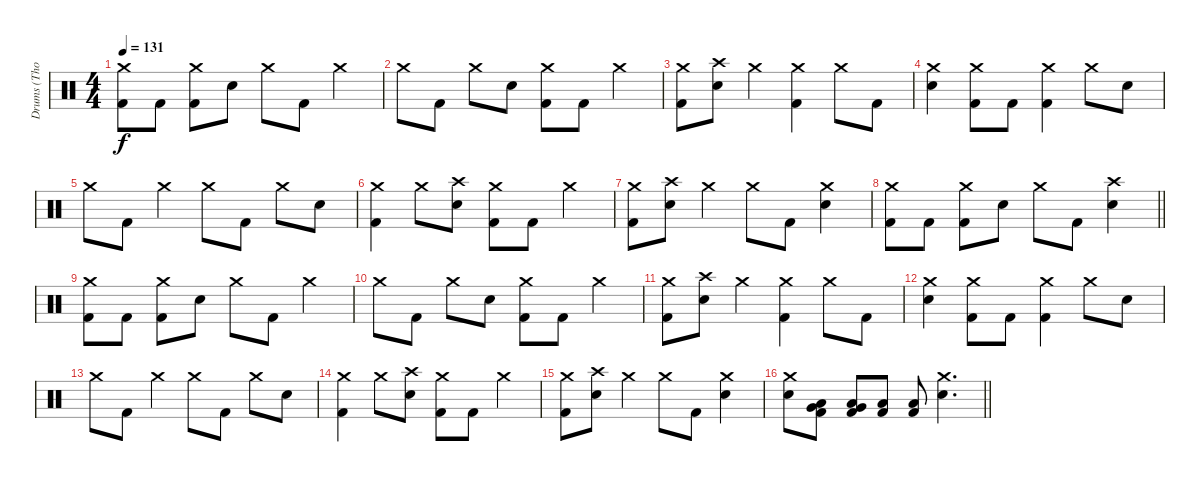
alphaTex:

\track ("Drums (Thomas Haake)" "Drums (Tho") {instrument percussion}
\staff {score}
\articulation defaults
\ts (4 4)
\tempo 131
\clef neutral
\ks c
("Crash medium (hit)" "Kick (hit) 2").8{dy f} "Kick (hit) 2".8 ("Crash medium (hit)" "Kick (hit) 2").8 "Electric Snare (hit)".8 "Crash medium (hit)".8 "Kick (hit) 2".8 "Crash medium (hit)".4 |
"Crash medium (hit)".8 "Kick (hit) 2".8 "Crash medium (hit)".8 "Electric Snare (hit)".8 ("Crash medium (hit)" "Kick (hit) 2").8 "Kick (hit) 2".8 "Crash medium (hit)".4 |
("Crash medium (hit)" "Kick (hit) 2").8 ("Crash high (hit)" "Electric Snare (hit)").8 "Crash medium (hit)".4 ("Crash medium (hit)" "Kick (hit) 2").4 "Crash medium (hit)".8 "Kick (hit) 2".8 |
("Crash medium (hit)" "Electric Snare (hit)").4 ("Crash medium (hit)" "Kick (hit) 2").8 "Kick (hit) 2".8 ("Crash medium (hit)" "Kick (hit) 2").4 "Crash medium (hit)".8 "Electric Snare (hit)".8 |
"Crash medium (hit)".8 "Kick (hit) 2".8 "Crash medium (hit)".4 "Crash medium (hit)".8 "Kick (hit) 2".8 "Crash medium (hit)".8 "Electric Snare (hit)".8 |
("Crash medium (hit)" "Kick (hit) 2").4 "Crash medium (hit)".8 ("Crash high (hit)" "Electric Snare (hit)").8 ("Crash medium (hit)" "Kick (hit) 2").8 "Kick (hit) 2".8 "Crash medium (hit)".4 |
("Crash medium (hit)" "Kick (hit) 2").8 ("Crash high (hit)" "Electric Snare (hit)").8 "Crash medium (hit)".4 "Crash medium (hit)".8 "Kick (hit) 2".8 ("Crash medium (hit)" "Electric Snare (hit)").4 |
\barLineRight lightlight
("Crash medium (hit)" "Kick (hit) 2").8 "Kick (hit) 2".8 ("Crash medium (hit)" "Kick (hit) 2").8 "Electric Snare (hit)".8 "Crash medium (hit)".8 "Kick (hit) 2".8 ("Crash high (hit)" "Electric Snare (hit)").4 |
("Crash medium (hit)" "Kick (hit) 2").8 "Kick (hit) 2".8 ("Crash medium (hit)" "Kick (hit) 2").8 "Electric Snare (hit)".8 "Crash medium (hit)".8 "Kick (hit) 2".8 "Crash medium (hit)".4 |
"Crash medium (hit)".8 "Kick (hit) 2".8 "Crash medium (hit)".8 "Electric Snare (hit)".8 ("Crash medium (hit)" "Kick (hit) 2").8 "Kick (hit) 2".8 "Crash medium (hit)".4 |
("Crash medium (hit)" "Kick (hit) 2").8 ("Crash high (hit)" "Electric Snare (hit)").8 "Crash medium (hit)".4 ("Crash medium (hit)" "Kick (hit) 2").4 "Crash medium (hit)".8 "Kick (hit) 2".8 |
("Crash medium (hit)" "Electric Snare (hit)").4 ("Crash medium (hit)" "Kick (hit) 2").8 "Kick (hit) 2".8 ("Crash medium (hit)" "Kick (hit) 2").4 "Crash medium (hit)".8 "Electric Snare (hit)".8 |
"Crash medium (hit)".8 "Kick (hit) 2".8 "Crash medium (hit)".4 "Crash medium (hit)".8 "Kick (hit) 2".8 "Crash medium (hit)".8 "Electric Snare (hit)".8 |
("Crash medium (hit)" "Kick (hit) 2").4 "Crash medium (hit)".8 ("Crash high (hit)" "Electric Snare (hit)").8 ("Crash medium (hit)" "Kick (hit) 2").8 "Kick (hit) 2".8 "Crash medium (hit)".4 |
("Crash medium (hit)" "Kick (hit) 2").8 ("Crash high (hit)" "Electric Snare (hit)").8 "Crash medium (hit)".4 "Crash medium (hit)".8 "Kick (hit) 2".8 ("Crash medium (hit)" "Electric Snare (hit)").4 |
\barLineRight lightlight
("Crash medium (hit)" "Electric Snare (hit)").8 ("Low Tom (hit)" "Very Low Tom (hit)" "Kick (hit) 2").8 ("Very Low Tom (hit)" "Low Floor Tom (hit)" "Kick (hit) 2").8 ("Low Floor Tom (hit)" "Kick (hit) 2").8 ("Low Floor Tom (hit)" "Kick (hit) 2").8 ("Crash medium (hit)" "Electric Snare (hit)").4{d}
